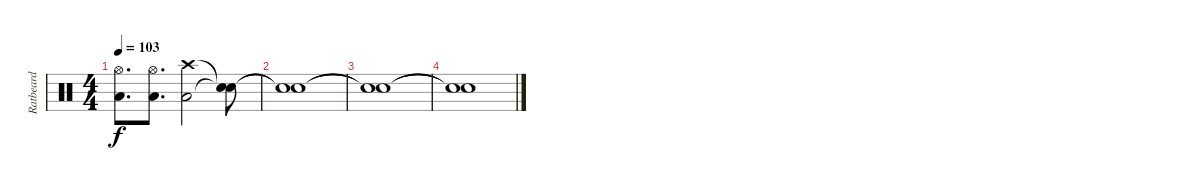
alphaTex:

\track ("Ratbeard" "Ratbeard") {instrument percussion}
\staff {score}
\articulation defaults
\ts (4 4)
\tempo 103
\clef neutral
\ks c
("Low Tom (hit)" "Hi-Hat (open)").8{d dy f} ("Low Tom (hit)" "Hi-Hat (open)").8{d} ("Low Tom (hit)" "Crash high (hit)").2 ("Snare (hit)"{t} "Snare (hit)"{t}).8 |
("Snare (hit)"{t} "Snare (hit)"{t}).1 |
("Snare (hit)"{t} "Snare (hit)"{t}).1 |
("Snare (hit)"{t} "Snare (hit)"{t}).1
